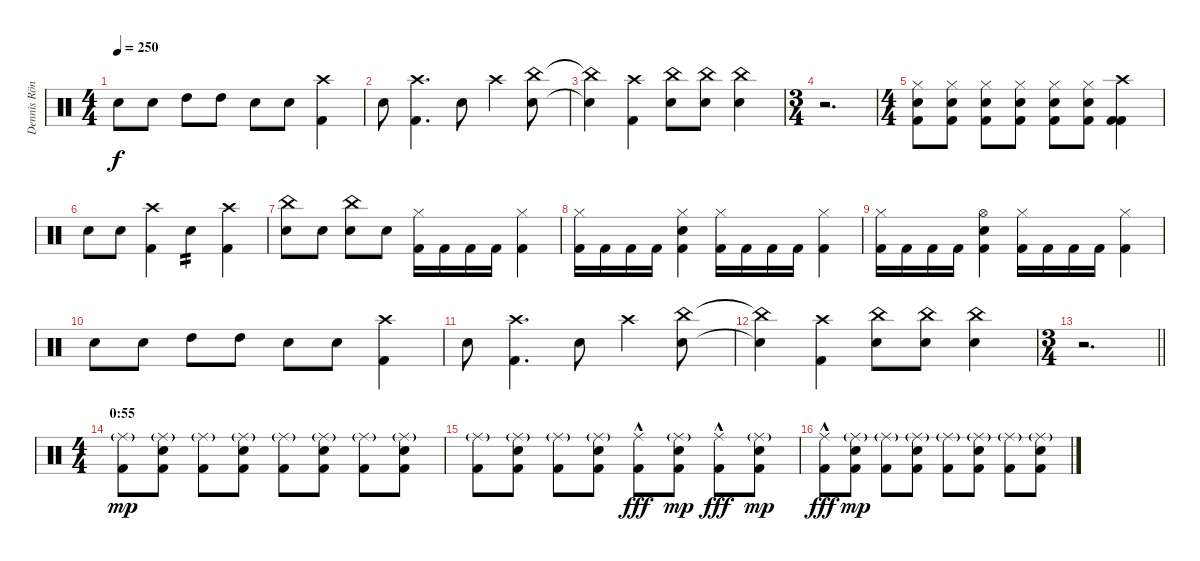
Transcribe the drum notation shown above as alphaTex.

\track ("Dennis Röndum" "Dennis Rön") {instrument percussion}
\staff {score}
\articulation defaults
\ts (4 4)
\tempo 250
\clef neutral
\ks c "Snare (hit) 2".8{dy f} "Snare (hit) 2".8 "High Tom (hit)".8 "High Tom (hit)".8 "Snare (hit) 2".8 "Snare (hit) 2".8
("Crash high (hit)" "Kick (hit) 2").4 |
"Snare (hit) 2".8 ("Crash high (hit)" "Kick (hit) 2").4{d} "Snare (hit) 2".8 "Crash high (hit)".4 ("China (hit)" "Snare (hit) 2").8 |
("China (hit)"{t} "Snare (hit) 2"{t}).4 ("Crash high (hit)" "Kick (hit) 2").4 ("China (hit)" "Snare (hit) 2").8 ("Snare (hit) 2" "China (hit)").8 ("China (hit)" "Snare (hit) 2").4 |
\ts (3 4)
r.2{d} |
\ts (4 4)
("Hi-Hat (closed)" "Snare (hit) 2" "Kick (hit) 2").8 ("Hi-Hat (closed)" "Snare (hit) 2" "Kick (hit) 2").8 ("Hi-Hat (closed)" "Snare (hit) 2" "Kick (hit) 2").8 ("Hi-Hat (closed)" "Snare (hit) 2" "Kick (hit) 2").8 ("Hi-Hat (closed)" "Snare (hit) 2" "Kick (hit) 2").8 ("Hi-Hat (closed)" "Snare (hit) 2" "Kick (hit) 2").8 ("Crash high (hit)" "Kick (hit) 2" "Kick (hit) 2").4 |
"Snare (hit) 2".8 "Snare (hit) 2".8 ("Crash high (hit)" "Kick (hit) 2").4 "Snare (hit) 2".4{tp 2} ("Crash high (hit)" "Kick (hit) 2").4 |
("China (hit)" "Snare (hit) 2").8 "Snare (hit) 2".8 ("China (hit)" "Snare (hit) 2").8 "Snare (hit) 2".8 ("Hi-Hat (closed)" "Kick (hit) 2").16 "Kick (hit) 2".16 "Kick (hit) 2".16 "Kick (hit) 2".16 ("Hi-Hat (closed)" "Kick (hit) 2").4 |
("Hi-Hat (closed)" "Kick (hit) 2").16 "Kick (hit) 2".16 "Kick (hit) 2".16 "Kick (hit) 2".16 ("Hi-Hat (closed)" "Snare (hit) 2" "Kick (hit) 2").4 ("Hi-Hat (closed)" "Kick (hit) 2").16 "Kick (hit) 2".16 "Kick (hit) 2".16 "Kick (hit) 2".16 ("Hi-Hat (closed)" "Kick (hit) 2").4 |
("Hi-Hat (closed)" "Kick (hit) 2").16 "Kick (hit) 2".16 "Kick (hit) 2".16 "Kick (hit) 2".16 ("Hi-Hat (open)" "Snare (hit) 2" "Kick (hit) 2").4 ("Hi-Hat (closed)" "Kick (hit) 2").16 "Kick (hit) 2".16 "Kick (hit) 2".16 "Kick (hit) 2".16 ("Hi-Hat (closed)" "Kick (hit) 2").4 |
"Snare (hit) 2".8 "Snare (hit) 2".8 "High Tom (hit)".8 "High Tom (hit)".8 "Snare (hit) 2".8 "Snare (hit) 2".8 ("Crash high (hit)" "Kick (hit) 2").4 |
"Snare (hit) 2".8 ("Crash high (hit)" "Kick (hit) 2").4{d} "Snare (hit) 2".8 "Crash high (hit)".4 ("China (hit)" "Snare (hit) 2").8 |
("China (hit)"{t} "Snare (hit) 2"{t}).4 ("Crash high (hit)" "Kick (hit) 2").4 ("China (hit)" "Snare (hit) 2").8 ("Snare (hit) 2" "China (hit)").8 ("China (hit)" "Snare (hit) 2").4 |
\ts (3 4)
\barLineRight lightlight
r.2{d} |
\ts (4 4)
\section ("" "0:55")
("Ride (middle)"{g} "Kick (hit) 2").8{dy mp} ("Snare (hit) 2" "Ride (middle)"{g} "Kick (hit) 2").8 ("Ride (middle)"{g} "Kick (hit) 2").8 ("Snare (hit) 2" "Ride (middle)"{g} "Kick (hit) 2").8 ("Ride (middle)"{g} "Kick (hit) 2").8 ("Snare (hit) 2" "Ride (middle)"{g} "Kick (hit) 2").8 ("Ride (middle)"{g} "Kick (hit) 2").8 ("Snare (hit) 2" "Ride (middle)"{g} "Kick (hit) 2").8 |
("Ride (middle)"{g} "Kick (hit) 2").8 ("Snare (hit) 2" "Ride (middle)"{g} "Kick (hit) 2").8 ("Ride (middle)"{g} "Kick (hit) 2").8 ("Snare (hit) 2" "Ride (middle)"{g} "Kick (hit) 2").8 ("Ride (middle)"{hac} "Kick (hit) 2").8{dy fff} ("Snare (hit) 2" "Ride (middle)"{g} "Kick (hit) 2").8{dy mp} ("Ride (middle)"{hac} "Kick (hit) 2").8{dy fff} ("Snare (hit) 2" "Ride (middle)"{g} "Kick (hit) 2").8{dy mp} |
("Ride (middle)"{hac} "Kick (hit) 2").8{dy fff} ("Snare (hit) 2" "Ride (middle)"{g} "Kick (hit) 2").8{dy mp} ("Ride (middle)"{g} "Kick (hit) 2").8 ("Snare (hit) 2" "Ride (middle)"{g} "Kick (hit) 2").8 ("Ride (middle)"{g} "Kick (hit) 2").8 ("Snare (hit) 2" "Ride (middle)"{g} "Kick (hit) 2").8 ("Ride (middle)"{g} "Kick (hit) 2").8 ("Snare (hit) 2" "Ride (middle)"{g} "Kick (hit) 2").8
